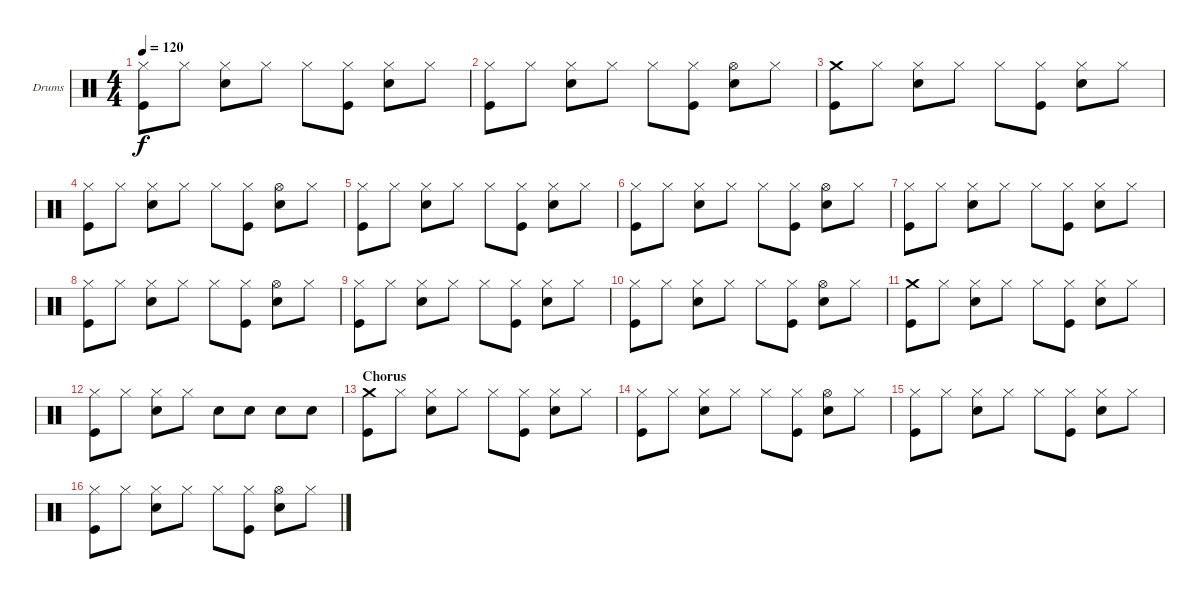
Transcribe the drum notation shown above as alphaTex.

\defaultSystemsLayout 4
\bracketExtendMode groupsimilarinstruments
\firstSystemTrackNameOrientation horizontal
\otherSystemsTrackNameOrientation horizontal
\track ("Drums" "Drums") {instrument percussion}
\staff {score}
\articulation defaults
\ts (4 4)
\tempo 120
\clef neutral
\ks c
("Kick (hit)" "Hi-Hat (closed)").8{dy f} "Hi-Hat (closed)".8 ("Snare (hit) 2" "Hi-Hat (closed)").8 "Hi-Hat (closed)".8 "Hi-Hat (closed)".8 ("Kick (hit)" "Hi-Hat (closed)").8 ("Snare (hit) 2" "Hi-Hat (closed)").8 "Hi-Hat (closed)".8 |
("Kick (hit)" "Hi-Hat (closed)").8 "Hi-Hat (closed)".8 ("Snare (hit) 2" "Hi-Hat (closed)").8 "Hi-Hat (closed)".8 "Hi-Hat (closed)".8 ("Kick (hit)" "Hi-Hat (closed)").8 ("Snare (hit) 2" "Hi-Hat (open)").8 "Hi-Hat (closed)".8 |
("Kick (hit)" "Crash medium (hit)").8 "Hi-Hat (closed)".8 ("Snare (hit) 2" "Hi-Hat (closed)").8 "Hi-Hat (closed)".8 "Hi-Hat (closed)".8 ("Kick (hit)" "Hi-Hat (closed)").8 ("Snare (hit) 2" "Hi-Hat (closed)").8 "Hi-Hat (closed)".8 |
("Kick (hit)" "Hi-Hat (closed)").8 "Hi-Hat (closed)".8 ("Snare (hit) 2" "Hi-Hat (closed)").8 "Hi-Hat (closed)".8 "Hi-Hat (closed)".8 ("Kick (hit)" "Hi-Hat (closed)").8 ("Snare (hit) 2" "Hi-Hat (open)").8 "Hi-Hat (closed)".8 |
("Kick (hit)" "Hi-Hat (closed)").8 "Hi-Hat (closed)".8 ("Snare (hit) 2" "Hi-Hat (closed)").8 "Hi-Hat (closed)".8 "Hi-Hat (closed)".8 ("Kick (hit)" "Hi-Hat (closed)").8 ("Snare (hit) 2" "Hi-Hat (closed)").8 "Hi-Hat (closed)".8 |
("Kick (hit)" "Hi-Hat (closed)").8 "Hi-Hat (closed)".8 ("Snare (hit) 2" "Hi-Hat (closed)").8 "Hi-Hat (closed)".8 "Hi-Hat (closed)".8 ("Kick (hit)" "Hi-Hat (closed)").8 ("Snare (hit) 2" "Hi-Hat (open)").8 "Hi-Hat (closed)".8 |
("Kick (hit)" "Hi-Hat (closed)").8 "Hi-Hat (closed)".8 ("Snare (hit) 2" "Hi-Hat (closed)").8 "Hi-Hat (closed)".8 "Hi-Hat (closed)".8 ("Kick (hit)" "Hi-Hat (closed)").8 ("Snare (hit) 2" "Hi-Hat (closed)").8 "Hi-Hat (closed)".8 |
("Kick (hit)" "Hi-Hat (closed)").8 "Hi-Hat (closed)".8 ("Snare (hit) 2" "Hi-Hat (closed)").8 "Hi-Hat (closed)".8 "Hi-Hat (closed)".8 ("Kick (hit)" "Hi-Hat (closed)").8 ("Snare (hit) 2" "Hi-Hat (open)").8 "Hi-Hat (closed)".8 |
("Kick (hit)" "Hi-Hat (closed)").8 "Hi-Hat (closed)".8 ("Snare (hit) 2" "Hi-Hat (closed)").8 "Hi-Hat (closed)".8 "Hi-Hat (closed)".8 ("Kick (hit)" "Hi-Hat (closed)").8 ("Snare (hit) 2" "Hi-Hat (closed)").8 "Hi-Hat (closed)".8 |
("Kick (hit)" "Hi-Hat (closed)").8 "Hi-Hat (closed)".8 ("Snare (hit) 2" "Hi-Hat (closed)").8 "Hi-Hat (closed)".8 "Hi-Hat (closed)".8 ("Kick (hit)" "Hi-Hat (closed)").8 ("Snare (hit) 2" "Hi-Hat (open)").8 "Hi-Hat (closed)".8 |
("Kick (hit)" "Crash medium (hit)").8 "Hi-Hat (closed)".8 ("Snare (hit) 2" "Hi-Hat (closed)").8 "Hi-Hat (closed)".8 "Hi-Hat (closed)".8 ("Kick (hit)" "Hi-Hat (closed)").8 ("Snare (hit) 2" "Hi-Hat (closed)").8 "Hi-Hat (closed)".8 |
("Kick (hit)" "Hi-Hat (closed)").8 "Hi-Hat (closed)".8 ("Snare (hit) 2" "Hi-Hat (closed)").8 "Hi-Hat (closed)".8 "Snare (hit) 2".8 "Snare (hit) 2".8 "Snare (hit) 2".8 "Snare (hit) 2".8 |
\section ("" "Chorus")
("Kick (hit)" "Crash medium (hit)").8 "Hi-Hat (closed)".8 ("Snare (hit) 2" "Hi-Hat (closed)").8 "Hi-Hat (closed)".8 "Hi-Hat (closed)".8 ("Kick (hit)" "Hi-Hat (closed)").8 ("Snare (hit) 2" "Hi-Hat (closed)").8 "Hi-Hat (closed)".8 |
("Kick (hit)" "Hi-Hat (closed)").8 "Hi-Hat (closed)".8 ("Snare (hit) 2" "Hi-Hat (closed)").8 "Hi-Hat (closed)".8 "Hi-Hat (closed)".8 ("Kick (hit)" "Hi-Hat (closed)").8 ("Snare (hit) 2" "Hi-Hat (open)").8 "Hi-Hat (closed)".8 |
("Kick (hit)" "Hi-Hat (closed)").8 "Hi-Hat (closed)".8 ("Snare (hit) 2" "Hi-Hat (closed)").8 "Hi-Hat (closed)".8 "Hi-Hat (closed)".8 ("Kick (hit)" "Hi-Hat (closed)").8 ("Snare (hit) 2" "Hi-Hat (closed)").8 "Hi-Hat (closed)".8 |
("Kick (hit)" "Hi-Hat (closed)").8 "Hi-Hat (closed)".8 ("Snare (hit) 2" "Hi-Hat (closed)").8 "Hi-Hat (closed)".8 "Hi-Hat (closed)".8 ("Kick (hit)" "Hi-Hat (closed)").8 ("Snare (hit) 2" "Hi-Hat (open)").8 "Hi-Hat (closed)".8
